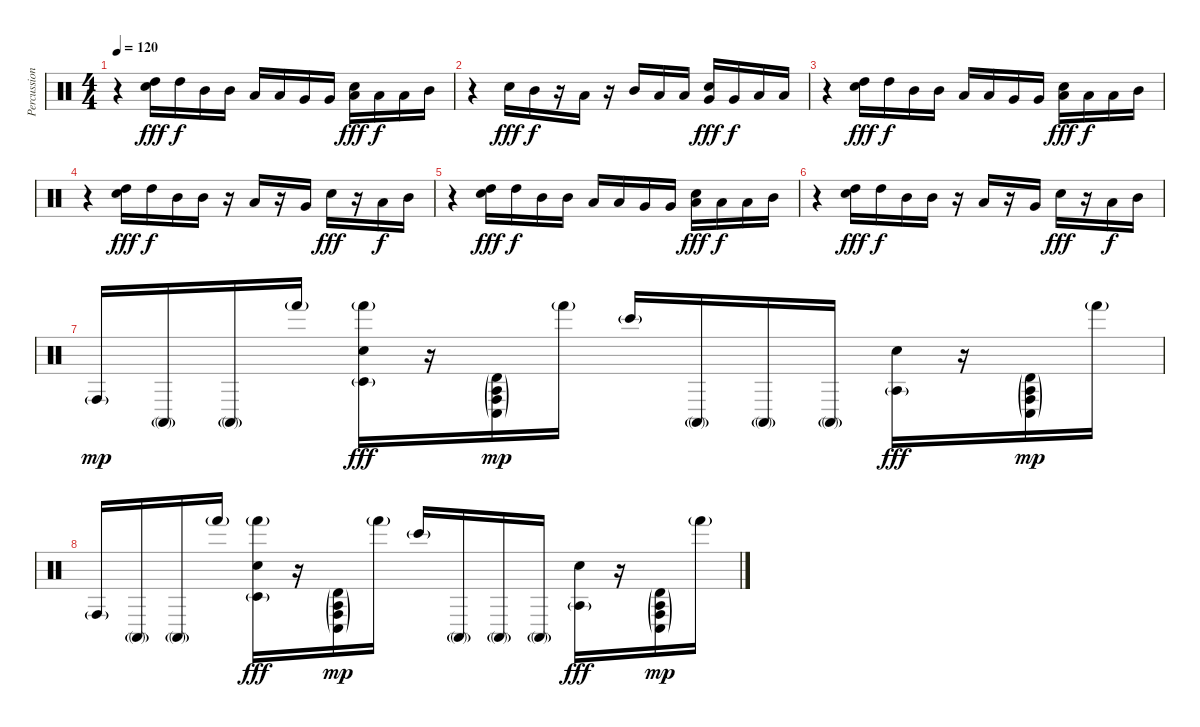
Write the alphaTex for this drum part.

\track ("Percussions" "Percussion") {instrument percussion}
\staff {score}
\articulation defaults
\ts (4 4)
\tempo 120
\clef neutral
\ks c
r.4{dy fff} ("High Tom (hit)" "Hand Clap (hit)").16 "High Tom (hit)".16{dy f} "Mid Tom (hit)".16 "Mid Tom (hit)".16 "Low Tom (hit)".16 "Low Tom (hit)".16 "Very Low Tom (hit)".16 "Very Low Tom (hit)".16 ("Low Floor Tom (hit)" "Hand Clap (hit)").16{dy fff} "Low Floor Tom (hit)".16{dy f} "Low Tom (hit)".16 "Mid Tom (hit)".16 |
r.4 "Hand Clap (hit)".16{dy fff} "Mid Tom (hit)".16{dy f} r.16 "Low Tom (hit)".16 r.16 "Mid Tom (hit)".16 "Low Tom (hit)".16 "Low Tom (hit)".16 ("Very Low Tom (hit)" "Hand Clap (hit)").16{dy fff} "Very Low Tom (hit)".16{dy f} "Low Floor Tom (hit)".16 "Low Floor Tom (hit)".16 |
r.4 ("High Tom (hit)" "Hand Clap (hit)").16{dy fff} "High Tom (hit)".16{dy f} "Mid Tom (hit)".16 "Mid Tom (hit)".16 "Low Tom (hit)".16 "Low Tom (hit)".16 "Very Low Tom (hit)".16 "Very Low Tom (hit)".16 ("Low Floor Tom (hit)" "Hand Clap (hit)").16{dy fff} "Low Floor Tom (hit)".16{dy f} "Low Tom (hit)".16 "Mid Tom (hit)".16 |
r.4 ("High Tom (hit)" "Hand Clap (hit)").16{dy fff} "High Tom (hit)".16{dy f} "Mid Tom (hit)".16 "Mid Tom (hit)".16 r.16 "Low Tom (hit)".16 r.16 "Very Low Tom (hit)".16 "Hand Clap (hit)".16{dy fff} r.16 "Low Tom (hit)".16{dy f} "Mid Tom (hit)".16 |
r.4 ("High Tom (hit)" "Hand Clap (hit)").16{dy fff} "High Tom (hit)".16{dy f} "Mid Tom (hit)".16 "Mid Tom (hit)".16 "Low Tom (hit)".16 "Low Tom (hit)".16 "Very Low Tom (hit)".16 "Very Low Tom (hit)".16 ("Low Floor Tom (hit)" "Hand Clap (hit)").16{dy fff} "Low Floor Tom (hit)".16{dy f} "Low Tom (hit)".16 "Mid Tom (hit)".16 |
r.4 ("High Tom (hit)" "Hand Clap (hit)").16{dy fff} "High Tom (hit)".16{dy f} "Mid Tom (hit)".16 "Mid Tom (hit)".16 r.16 "Low Tom (hit)".16 r.16 "Very Low Tom (hit)".16 "Hand Clap (hit)".16{dy fff} r.16 "Low Tom (hit)".16{dy f} "Mid Tom (hit)".16 |
"Conga high (hit)"{g}.16{dy mp} "Conga high (mute)"{g}.16 "Conga high (mute)"{g}.16 "Hand (hit)"{g}.16 ("Hand (hit)"{g} "Timbale low (hit)"{g} "Hand Clap (hit)").16{dy fff} r.16 ("Agogo tow (hit)"{g} "Conga high (hit)"{g} "Conga low (hit)"{g} "Timbale high (hit)"{g}).16{dy mp} "Hand (hit)"{g}.16 "Bongo High (hit)"{g}.16 "Conga high (mute)"{g}.16 "Conga high (mute)"{g}.16 "Conga high (mute)"{g}.16 ("Agogo tow (hit)"{g} "Hand Clap (hit)").16{dy fff} r.16 ("Agogo tow (hit)"{g} "Conga high (hit)"{g} "Conga low (hit)"{g} "Timbale high (hit)"{g}).16{dy mp} "Hand (hit)"{g}.16 |
"Conga high (hit)"{g}.16 "Conga high (mute)"{g}.16 "Conga high (mute)"{g}.16 "Hand (hit)"{g}.16 ("Hand (hit)"{g} "Timbale low (hit)"{g} "Hand Clap (hit)").16{dy fff} r.16 ("Agogo tow (hit)"{g} "Conga high (hit)"{g} "Conga low (hit)"{g} "Timbale high (hit)"{g}).16{dy mp} "Hand (hit)"{g}.16 "Bongo High (hit)"{g}.16 "Conga high (mute)"{g}.16 "Conga high (mute)"{g}.16 "Conga high (mute)"{g}.16 ("Agogo tow (hit)"{g} "Hand Clap (hit)").16{dy fff} r.16 ("Agogo tow (hit)"{g} "Conga high (hit)"{g} "Conga low (hit)"{g} "Timbale high (hit)"{g}).16{dy mp} "Hand (hit)"{g}.16
